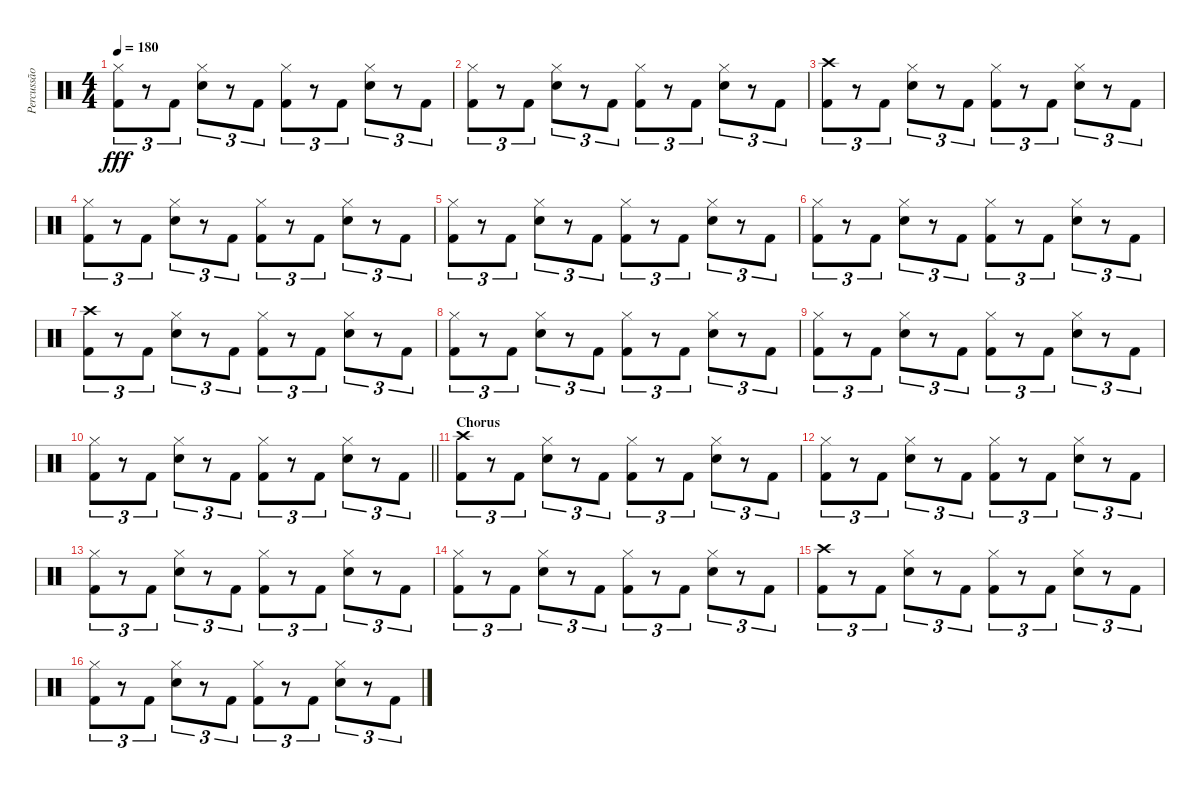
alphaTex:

\track ("Percussão" "Percussão") {instrument percussion}
\staff {score}
\articulation defaults
\ts (4 4)
\tempo 180
\clef neutral
\ks c
("Hi-Hat (closed)" "Kick (hit) 2").8{tu (3 2) dy fff} r.8{tu (3 2)} "Kick (hit) 2".8{tu (3 2)} ("Hi-Hat (closed)" "Snare (hit) 2").8{tu (3 2)} r.8{tu (3 2)} "Kick (hit) 2".8{tu (3 2)} ("Hi-Hat (closed)" "Kick (hit) 2").8{tu (3 2)} r.8{tu (3 2)} "Kick (hit) 2".8{tu (3 2)} ("Hi-Hat (closed)" "Snare (hit) 2").8{tu (3 2)} r.8{tu (3 2)} "Kick (hit) 2".8{tu (3 2)} |
("Hi-Hat (closed)" "Kick (hit) 2").8{tu (3 2)} r.8{tu (3 2)} "Kick (hit) 2".8{tu (3 2)} ("Hi-Hat (closed)" "Snare (hit) 2").8{tu (3 2)} r.8{tu (3 2)} "Kick (hit) 2".8{tu (3 2)} ("Hi-Hat (closed)" "Kick (hit) 2").8{tu (3 2)} r.8{tu (3 2)} "Kick (hit) 2".8{tu (3 2)} ("Hi-Hat (closed)" "Snare (hit) 2").8{tu (3 2)} r.8{tu (3 2)} "Kick (hit) 2".8{tu (3 2)} |
("Crash high (hit)" "Kick (hit) 2").8{tu (3 2)} r.8{tu (3 2)} "Kick (hit) 2".8{tu (3 2)} ("Hi-Hat (closed)" "Snare (hit) 2").8{tu (3 2)} r.8{tu (3 2)} "Kick (hit) 2".8{tu (3 2)} ("Hi-Hat (closed)" "Kick (hit) 2").8{tu (3 2)} r.8{tu (3 2)} "Kick (hit) 2".8{tu (3 2)} ("Hi-Hat (closed)" "Snare (hit) 2").8{tu (3 2)} r.8{tu (3 2)} "Kick (hit) 2".8{tu (3 2)} |
("Hi-Hat (closed)" "Kick (hit) 2").8{tu (3 2)} r.8{tu (3 2)} "Kick (hit) 2".8{tu (3 2)} ("Hi-Hat (closed)" "Snare (hit) 2").8{tu (3 2)} r.8{tu (3 2)} "Kick (hit) 2".8{tu (3 2)} ("Hi-Hat (closed)" "Kick (hit) 2").8{tu (3 2)} r.8{tu (3 2)} "Kick (hit) 2".8{tu (3 2)} ("Hi-Hat (closed)" "Snare (hit) 2").8{tu (3 2)} r.8{tu (3 2)} "Kick (hit) 2".8{tu (3 2)} |
("Hi-Hat (closed)" "Kick (hit) 2").8{tu (3 2)} r.8{tu (3 2)} "Kick (hit) 2".8{tu (3 2)} ("Hi-Hat (closed)" "Snare (hit) 2").8{tu (3 2)} r.8{tu (3 2)} "Kick (hit) 2".8{tu (3 2)} ("Hi-Hat (closed)" "Kick (hit) 2").8{tu (3 2)} r.8{tu (3 2)} "Kick (hit) 2".8{tu (3 2)} ("Hi-Hat (closed)" "Snare (hit) 2").8{tu (3 2)} r.8{tu (3 2)} "Kick (hit) 2".8{tu (3 2)} |
("Hi-Hat (closed)" "Kick (hit) 2").8{tu (3 2)} r.8{tu (3 2)} "Kick (hit) 2".8{tu (3 2)} ("Hi-Hat (closed)" "Snare (hit) 2").8{tu (3 2)} r.8{tu (3 2)} "Kick (hit) 2".8{tu (3 2)} ("Hi-Hat (closed)" "Kick (hit) 2").8{tu (3 2)} r.8{tu (3 2)} "Kick (hit) 2".8{tu (3 2)} ("Hi-Hat (closed)" "Snare (hit) 2").8{tu (3 2)} r.8{tu (3 2)} "Kick (hit) 2".8{tu (3 2)} |
("Crash high (hit)" "Kick (hit) 2").8{tu (3 2)} r.8{tu (3 2)} "Kick (hit) 2".8{tu (3 2)} ("Hi-Hat (closed)" "Snare (hit) 2").8{tu (3 2)} r.8{tu (3 2)} "Kick (hit) 2".8{tu (3 2)} ("Hi-Hat (closed)" "Kick (hit) 2").8{tu (3 2)} r.8{tu (3 2)} "Kick (hit) 2".8{tu (3 2)} ("Hi-Hat (closed)" "Snare (hit) 2").8{tu (3 2)} r.8{tu (3 2)} "Kick (hit) 2".8{tu (3 2)} |
("Hi-Hat (closed)" "Kick (hit) 2").8{tu (3 2)} r.8{tu (3 2)} "Kick (hit) 2".8{tu (3 2)} ("Hi-Hat (closed)" "Snare (hit) 2").8{tu (3 2)} r.8{tu (3 2)} "Kick (hit) 2".8{tu (3 2)} ("Hi-Hat (closed)" "Kick (hit) 2").8{tu (3 2)} r.8{tu (3 2)} "Kick (hit) 2".8{tu (3 2)} ("Hi-Hat (closed)" "Snare (hit) 2").8{tu (3 2)} r.8{tu (3 2)} "Kick (hit) 2".8{tu (3 2)} |
("Hi-Hat (closed)" "Kick (hit) 2").8{tu (3 2)} r.8{tu (3 2)} "Kick (hit) 2".8{tu (3 2)} ("Hi-Hat (closed)" "Snare (hit) 2").8{tu (3 2)} r.8{tu (3 2)} "Kick (hit) 2".8{tu (3 2)} ("Hi-Hat (closed)" "Kick (hit) 2").8{tu (3 2)} r.8{tu (3 2)} "Kick (hit) 2".8{tu (3 2)} ("Hi-Hat (closed)" "Snare (hit) 2").8{tu (3 2)} r.8{tu (3 2)} "Kick (hit) 2".8{tu (3 2)} |
\barLineRight lightlight
("Hi-Hat (closed)" "Kick (hit) 2").8{tu (3 2)} r.8{tu (3 2)} "Kick (hit) 2".8{tu (3 2)} ("Hi-Hat (closed)" "Snare (hit) 2").8{tu (3 2)} r.8{tu (3 2)} "Kick (hit) 2".8{tu (3 2)} ("Hi-Hat (closed)" "Kick (hit) 2").8{tu (3 2)} r.8{tu (3 2)} "Kick (hit) 2".8{tu (3 2)} ("Hi-Hat (closed)" "Snare (hit) 2").8{tu (3 2)} r.8{tu (3 2)} "Kick (hit) 2".8{tu (3 2)} |
\section ("" "Chorus")
("Crash high (hit)" "Kick (hit) 2").8{tu (3 2)} r.8{tu (3 2)} "Kick (hit) 2".8{tu (3 2)} ("Hi-Hat (closed)" "Snare (hit) 2").8{tu (3 2)} r.8{tu (3 2)} "Kick (hit) 2".8{tu (3 2)} ("Hi-Hat (closed)" "Kick (hit) 2").8{tu (3 2)} r.8{tu (3 2)} "Kick (hit) 2".8{tu (3 2)} ("Hi-Hat (closed)" "Snare (hit) 2").8{tu (3 2)} r.8{tu (3 2)} "Kick (hit) 2".8{tu (3 2)} |
("Hi-Hat (closed)" "Kick (hit) 2").8{tu (3 2)} r.8{tu (3 2)} "Kick (hit) 2".8{tu (3 2)} ("Hi-Hat (closed)" "Snare (hit) 2").8{tu (3 2)} r.8{tu (3 2)} "Kick (hit) 2".8{tu (3 2)} ("Hi-Hat (closed)" "Kick (hit) 2").8{tu (3 2)} r.8{tu (3 2)} "Kick (hit) 2".8{tu (3 2)} ("Hi-Hat (closed)" "Snare (hit) 2").8{tu (3 2)} r.8{tu (3 2)} "Kick (hit) 2".8{tu (3 2)} |
("Hi-Hat (closed)" "Kick (hit) 2").8{tu (3 2)} r.8{tu (3 2)} "Kick (hit) 2".8{tu (3 2)} ("Hi-Hat (closed)" "Snare (hit) 2").8{tu (3 2)} r.8{tu (3 2)} "Kick (hit) 2".8{tu (3 2)} ("Hi-Hat (closed)" "Kick (hit) 2").8{tu (3 2)} r.8{tu (3 2)} "Kick (hit) 2".8{tu (3 2)} ("Hi-Hat (closed)" "Snare (hit) 2").8{tu (3 2)} r.8{tu (3 2)} "Kick (hit) 2".8{tu (3 2)} |
("Hi-Hat (closed)" "Kick (hit) 2").8{tu (3 2)} r.8{tu (3 2)} "Kick (hit) 2".8{tu (3 2)} ("Hi-Hat (closed)" "Snare (hit) 2").8{tu (3 2)} r.8{tu (3 2)} "Kick (hit) 2".8{tu (3 2)} ("Hi-Hat (closed)" "Kick (hit) 2").8{tu (3 2)} r.8{tu (3 2)} "Kick (hit) 2".8{tu (3 2)} ("Hi-Hat (closed)" "Snare (hit) 2").8{tu (3 2)} r.8{tu (3 2)} "Kick (hit) 2".8{tu (3 2)} |
("Crash high (hit)" "Kick (hit) 2").8{tu (3 2)} r.8{tu (3 2)} "Kick (hit) 2".8{tu (3 2)} ("Hi-Hat (closed)" "Snare (hit) 2").8{tu (3 2)} r.8{tu (3 2)} "Kick (hit) 2".8{tu (3 2)} ("Hi-Hat (closed)" "Kick (hit) 2").8{tu (3 2)} r.8{tu (3 2)} "Kick (hit) 2".8{tu (3 2)} ("Hi-Hat (closed)" "Snare (hit) 2").8{tu (3 2)} r.8{tu (3 2)} "Kick (hit) 2".8{tu (3 2)} |
("Hi-Hat (closed)" "Kick (hit) 2").8{tu (3 2)} r.8{tu (3 2)} "Kick (hit) 2".8{tu (3 2)} ("Hi-Hat (closed)" "Snare (hit) 2").8{tu (3 2)} r.8{tu (3 2)} "Kick (hit) 2".8{tu (3 2)} ("Hi-Hat (closed)" "Kick (hit) 2").8{tu (3 2)} r.8{tu (3 2)} "Kick (hit) 2".8{tu (3 2)} ("Hi-Hat (closed)" "Snare (hit) 2").8{tu (3 2)} r.8{tu (3 2)} "Kick (hit) 2".8{tu (3 2)}
